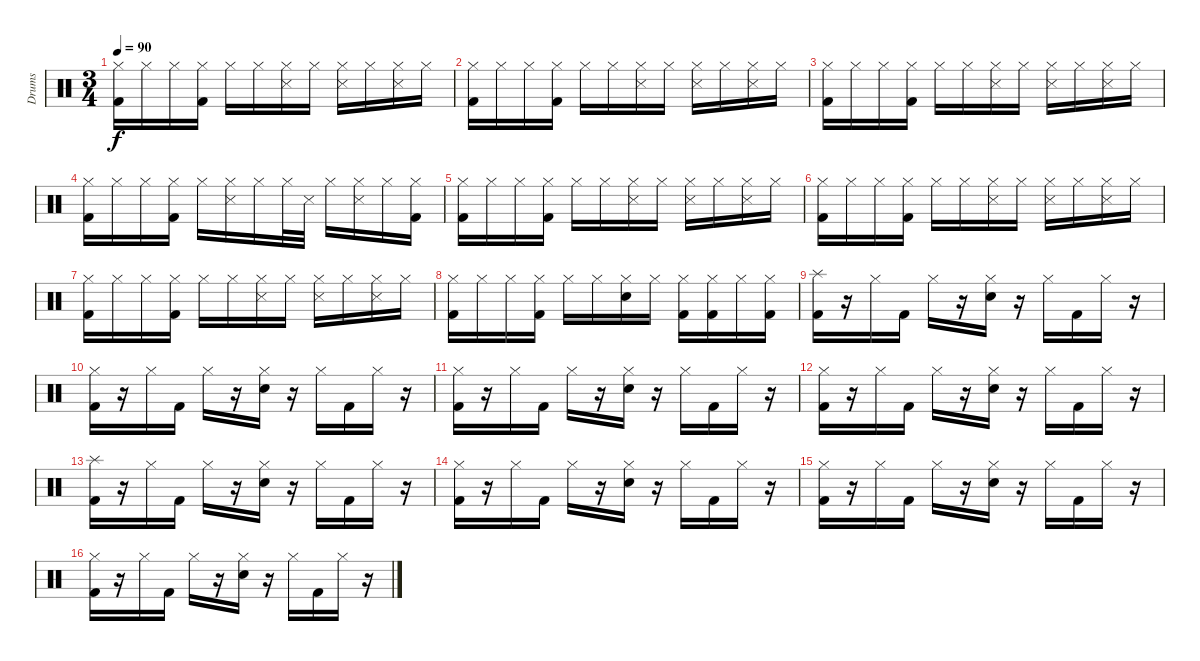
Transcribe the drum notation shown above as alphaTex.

\track ("Drums" "Drums") {instrument percussion}
\staff {score}
\articulation defaults
\ts (3 4)
\tempo 90
\clef neutral
\ks c
("Hi-Hat (closed)" "Kick (hit) 2").16{dy f} "Hi-Hat (closed)".16 "Hi-Hat (closed)".16 ("Hi-Hat (closed)" "Kick (hit) 2").16 "Hi-Hat (closed)".16 "Hi-Hat (closed)".16 ("Hi-Hat (closed)" "Snare (side stick) 3").16 "Hi-Hat (closed)".16 ("Hi-Hat (closed)" "Snare (side stick) 3").16 "Hi-Hat (closed)".16 ("Hi-Hat (closed)" "Snare (side stick) 3").16 "Hi-Hat (closed)".16 |
("Hi-Hat (closed)" "Kick (hit) 2").16 "Hi-Hat (closed)".16 "Hi-Hat (closed)".16 ("Hi-Hat (closed)" "Kick (hit) 2").16 "Hi-Hat (closed)".16 "Hi-Hat (closed)".16 ("Hi-Hat (closed)" "Snare (side stick) 3").16 "Hi-Hat (closed)".16 ("Hi-Hat (closed)" "Snare (side stick) 3").16 "Hi-Hat (closed)".16 ("Hi-Hat (closed)" "Snare (side stick) 3").16 "Hi-Hat (closed)".16 |
("Hi-Hat (closed)" "Kick (hit) 2").16 "Hi-Hat (closed)".16 "Hi-Hat (closed)".16 ("Hi-Hat (closed)" "Kick (hit) 2").16 "Hi-Hat (closed)".16 "Hi-Hat (closed)".16 ("Hi-Hat (closed)" "Snare (side stick) 3").16 "Hi-Hat (closed)".16 ("Hi-Hat (closed)" "Snare (side stick) 3").16 "Hi-Hat (closed)".16 ("Hi-Hat (closed)" "Snare (side stick) 3").16 "Hi-Hat (closed)".16 |
("Hi-Hat (closed)" "Kick (hit) 2").16 "Hi-Hat (closed)".16 "Hi-Hat (closed)".16 ("Hi-Hat (closed)" "Kick (hit) 2").16 "Hi-Hat (closed)".16 ("Hi-Hat (closed)" "Snare (side stick) 3").16 "Hi-Hat (closed)".16 "Hi-Hat (closed)".32 "Snare (side stick) 3".32 "Hi-Hat (closed)".16 ("Hi-Hat (closed)" "Snare (side stick) 3").16 "Hi-Hat (closed)".16 ("Hi-Hat (closed)" "Kick (hit) 2").16 |
("Hi-Hat (closed)" "Kick (hit) 2").16 "Hi-Hat (closed)".16 "Hi-Hat (closed)".16 ("Hi-Hat (closed)" "Kick (hit) 2").16 "Hi-Hat (closed)".16 "Hi-Hat (closed)".16 ("Hi-Hat (closed)" "Snare (side stick) 3").16 "Hi-Hat (closed)".16 ("Hi-Hat (closed)" "Snare (side stick) 3").16 "Hi-Hat (closed)".16 ("Hi-Hat (closed)" "Snare (side stick) 3").16 "Hi-Hat (closed)".16 |
("Hi-Hat (closed)" "Kick (hit) 2").16 "Hi-Hat (closed)".16 "Hi-Hat (closed)".16 ("Hi-Hat (closed)" "Kick (hit) 2").16 "Hi-Hat (closed)".16 "Hi-Hat (closed)".16 ("Hi-Hat (closed)" "Snare (side stick) 3").16 "Hi-Hat (closed)".16 ("Hi-Hat (closed)" "Snare (side stick) 3").16 "Hi-Hat (closed)".16 ("Hi-Hat (closed)" "Snare (side stick) 3").16 "Hi-Hat (closed)".16 |
("Hi-Hat (closed)" "Kick (hit) 2").16 "Hi-Hat (closed)".16 "Hi-Hat (closed)".16 ("Hi-Hat (closed)" "Kick (hit) 2").16 "Hi-Hat (closed)".16 "Hi-Hat (closed)".16 ("Hi-Hat (closed)" "Snare (side stick) 3").16 "Hi-Hat (closed)".16 ("Hi-Hat (closed)" "Snare (side stick) 3").16 "Hi-Hat (closed)".16 ("Hi-Hat (closed)" "Snare (side stick) 3").16 "Hi-Hat (closed)".16 |
("Hi-Hat (closed)" "Kick (hit) 2").16 "Hi-Hat (closed)".16 "Hi-Hat (closed)".16 ("Hi-Hat (closed)" "Kick (hit) 2").16 "Hi-Hat (closed)".16 "Hi-Hat (closed)".16 ("Hi-Hat (closed)" "Snare (hit) 2").16 "Hi-Hat (closed)".16 ("Hi-Hat (closed)" "Kick (hit) 2").16 ("Hi-Hat (closed)" "Kick (hit) 2").16 "Hi-Hat (closed)".16 ("Hi-Hat (closed)" "Kick (hit) 2").16 |
("Splash (hit)" "Kick (hit) 2").16 r.16 "Hi-Hat (closed)".16 "Kick (hit) 2".16 "Hi-Hat (closed)".16 r.16 ("Hi-Hat (closed)" "Snare (hit) 2").16 r.16 "Hi-Hat (closed)".16 "Kick (hit) 2".16 "Hi-Hat (closed)".16 r.16 |
("Hi-Hat (closed)" "Kick (hit) 2").16 r.16 "Hi-Hat (closed)".16 "Kick (hit) 2".16 "Hi-Hat (closed)".16 r.16 ("Hi-Hat (closed)" "Snare (hit) 2").16 r.16 "Hi-Hat (closed)".16 "Kick (hit) 2".16 "Hi-Hat (closed)".16 r.16 |
("Hi-Hat (closed)" "Kick (hit) 2").16 r.16 "Hi-Hat (closed)".16 "Kick (hit) 2".16 "Hi-Hat (closed)".16 r.16 ("Hi-Hat (closed)" "Snare (hit) 2").16 r.16 "Hi-Hat (closed)".16 "Kick (hit) 2".16 "Hi-Hat (closed)".16 r.16 |
("Hi-Hat (closed)" "Kick (hit) 2").16 r.16 "Hi-Hat (closed)".16 "Kick (hit) 2".16 "Hi-Hat (closed)".16 r.16 ("Hi-Hat (closed)" "Snare (hit) 2").16 r.16 "Hi-Hat (closed)".16 "Kick (hit) 2".16 "Hi-Hat (closed)".16 r.16 |
("Splash (hit)" "Kick (hit) 2").16 r.16 "Hi-Hat (closed)".16 "Kick (hit) 2".16 "Hi-Hat (closed)".16 r.16 ("Hi-Hat (closed)" "Snare (hit) 2").16 r.16 "Hi-Hat (closed)".16 "Kick (hit) 2".16 "Hi-Hat (closed)".16 r.16 |
("Hi-Hat (closed)" "Kick (hit) 2").16 r.16 "Hi-Hat (closed)".16 "Kick (hit) 2".16 "Hi-Hat (closed)".16 r.16 ("Hi-Hat (closed)" "Snare (hit) 2").16 r.16 "Hi-Hat (closed)".16 "Kick (hit) 2".16 "Hi-Hat (closed)".16 r.16 |
("Hi-Hat (closed)" "Kick (hit) 2").16 r.16 "Hi-Hat (closed)".16 "Kick (hit) 2".16 "Hi-Hat (closed)".16 r.16 ("Hi-Hat (closed)" "Snare (hit) 2").16 r.16 "Hi-Hat (closed)".16 "Kick (hit) 2".16 "Hi-Hat (closed)".16 r.16 |
("Hi-Hat (closed)" "Kick (hit) 2").16 r.16 "Hi-Hat (closed)".16 "Kick (hit) 2".16 "Hi-Hat (closed)".16 r.16 ("Hi-Hat (closed)" "Snare (hit) 2").16 r.16 "Hi-Hat (closed)".16 "Kick (hit) 2".16 "Hi-Hat (closed)".16 r.16
